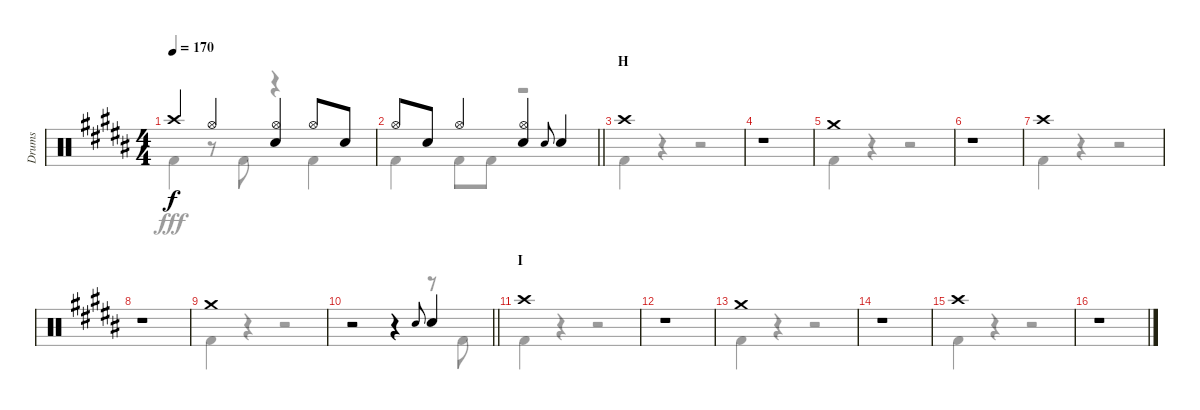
\track ("Drums" "Drums") {instrument percussion}
\staff {score}
\articulation defaults
\voice
\ts (4 4)
\tempo 170
\clef neutral
\ks b "Crash high (hit)".4{dy f} "Hi-Hat (open)".4
("Hi-Hat (open)" "Snare (hit) 2").4 "Hi-Hat (open)".8 "Snare (hit) 2".8 |
\barLineRight lightlight "Hi-Hat (open)".8 "Snare (hit) 2".8 "Hi-Hat (open)".4
("Hi-Hat (open)" "Snare (hit) 2").4 "Snare (hit) 2".8{gr onbeat} "Snare (hit) 2".4 |
\section ("" "H")
"Crash high (hit)".1 |
r.1 |
"Crash medium (hit)".1 |
r.1 |
"Crash high (hit)".1 |
r.1 |
"Crash medium (hit)".1 |
\barLineRight lightlight
r.2 r.4 "Snare (hit) 2".8{gr onbeat} "Snare (hit) 2".4 |
\section ("" "I")
"Crash high (hit)".1 |
r.1 |
"Crash medium (hit)".1 |
r.1 |
"Crash high (hit)".1 |
r.1
\voice
\clef neutral
\ottava regular
\simile none
\ks b "Kick (hit) 2".4{dy fff}
r.8 "Kick (hit) 2".8 r.4 "Kick (hit) 2".4 |
\barLineRight lightlight "Kick (hit) 2".4 "Kick (hit) 2".8 "Kick (hit) 2".8
r.2 |
"Kick (hit) 2".4 r.4 r.2 |
r.1 |
"Kick (hit) 2".4 r.4 r.2 |
r.1 |
"Kick (hit) 2".4 r.4 r.2 |
r.1 |
"Kick (hit) 2".4 r.4 r.2 |
\barLineRight lightlight
r.2 r.4 r.8 "Kick (hit) 2".8 |
"Kick (hit) 2".4 r.4 r.2 |
r.1 |
"Kick (hit) 2".4 r.4 r.2 |
r.1 |
"Kick (hit) 2".4 r.4 r.2 |
r.1
